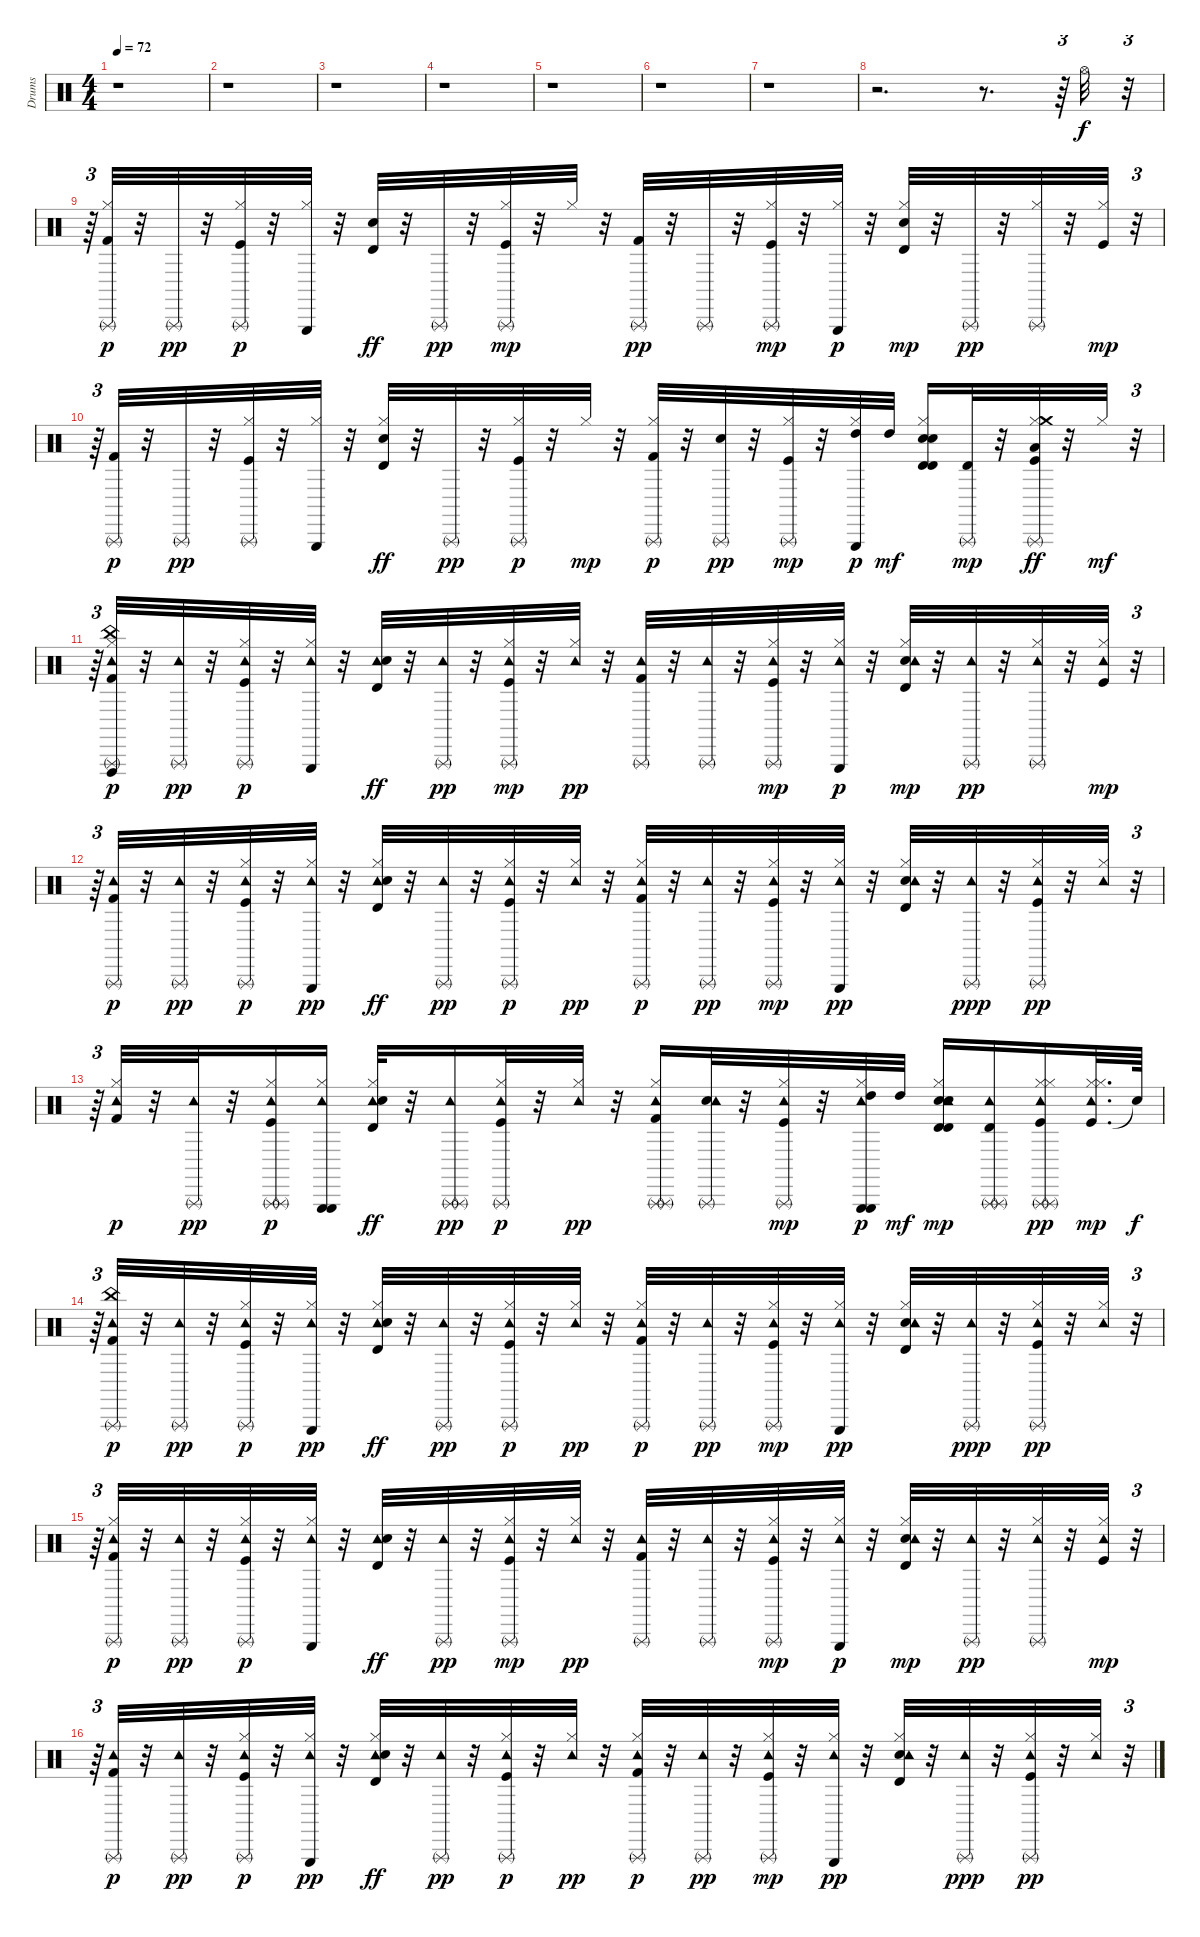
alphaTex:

\track ("Drums" "Drums") {instrument percussion}
\staff {score}
\articulation defaults
\ts (4 4)
\tempo 72
\clef neutral
\ks c
r.1{dy pp} |
r.1 |
r.1 |
r.1 |
r.1 |
r.1 |
r.1 |
r.2{d} r.8{d} r.64{tu (3 2)} "Hi-Hat (open)".32{dy f} r.32{tu (3 2)} |
r.64{tu (3 2)} ("Hi-Hat (closed)" "Triangle (rnute)" "Kick (hit) 2").32{dy p} r.32 "Triangle (rnute)".32{dy pp} r.32 ("Kick (hit)" "Hi-Hat (closed)" "Triangle (rnute)").32{dy p} r.32 ("Hi-Hat (closed)" "Triangle (hit)").32 r.32 ("Electric Snare (hit)" "Timbale high (hit)").32{dy ff} r.32 "Triangle (rnute)".32{dy pp} r.32 ("Kick (hit)" "Hi-Hat (closed)" "Triangle (rnute)").32{dy mp} r.32 "Hi-Hat (closed)".32 r.32 ("Kick (hit) 2" "Triangle (rnute)").32{dy pp} r.32 "Triangle (rnute)".32 r.32 ("Hi-Hat (closed)" "Triangle (rnute)" "Kick (hit)").32{dy mp} r.32 ("Hi-Hat (closed)" "Triangle (hit)").32{dy p} r.32 ("Timbale high (hit)" "Electric Snare (hit)" "Hi-Hat (closed)").32{dy mp} r.32 "Triangle (rnute)".32{dy pp} r.32 ("Hi-Hat (closed)" "Triangle (rnute)").32 r.32 ("Kick (hit)" "Hi-Hat (closed)").32{dy mp} r.32{tu (3 2)} |
r.64{tu (3 2)} ("Kick (hit) 2" "Triangle (rnute)").32{dy p} r.32 "Triangle (rnute)".32{dy pp} r.32 ("Kick (hit)" "Hi-Hat (closed)" "Triangle (rnute)").32 r.32 ("Hi-Hat (closed)" "Triangle (hit)").32 r.32 ("Hi-Hat (closed)" "Electric Snare (hit)" "Timbale high (hit)").32{dy ff} r.32 "Triangle (rnute)".32{dy pp} r.32 ("Kick (hit)" "Hi-Hat (closed)" "Triangle (rnute)").32{dy p} r.32 "Hi-Hat (closed)".32{dy mp} r.32 ("Hi-Hat (closed)" "Triangle (rnute)" "Kick (hit) 2").32{dy p} r.32 ("Snare (hit) 2" "Triangle (rnute)").32{dy pp} r.32 ("Hi-Hat (closed)" "Triangle (rnute)" "Kick (hit)").32{dy mp} r.32 ("Hi-Hat (closed)" "High Tom (hit)" "Triangle (hit)").32{dy p} "High Tom (hit)".32{dy mf} ("Electric Snare (hit)" "Timbale high (hit)" "Hi-Hat (closed)" "Timbale high (hit)" "Snare (hit) 2").16 ("Triangle (rnute)" "Timbale high (hit)").32{dy mp} r.32 ("Kick (hit)" "Hi-Hat (closed)" "Triangle (rnute)" "Crash medium (hit)" "Low Tom (hit)").32{dy ff} r.32 "Hi-Hat (closed)".32{dy mf} r.32{tu (3 2)} |
r.64{tu (3 2)} ("China (hit)" "Hi-Hat (closed)" "Tambourine (hit)" "Vibraslap (hit)" "Triangle (rnute)" "Kick (hit) 2").32{dy p} r.32 ("Triangle (rnute)" "Tambourine (hit)").32{dy pp} r.32 ("Kick (hit)" "Hi-Hat (closed)" "Tambourine (hit)" "Triangle (rnute)").32{dy p} r.32 ("Hi-Hat (closed)" "Tambourine (hit)" "Triangle (hit)").32 r.32 ("Tambourine (hit)" "Electric Snare (hit)" "Timbale high (hit)").32{dy ff} r.32 ("Triangle (rnute)" "Tambourine (hit)").32{dy pp} r.32 ("Kick (hit)" "Hi-Hat (closed)" "Tambourine (hit)" "Triangle (rnute)").32{dy mp} r.32 ("Hi-Hat (closed)" "Tambourine (hit)").32{dy pp} r.32 ("Tambourine (hit)" "Kick (hit) 2" "Triangle (rnute)").32 r.32 ("Triangle (rnute)" "Tambourine (hit)").32 r.32 ("Hi-Hat (closed)" "Triangle (rnute)" "Tambourine (hit)" "Kick (hit)").32{dy mp} r.32 ("Hi-Hat (closed)" "Tambourine (hit)" "Triangle (hit)").32{dy p} r.32 ("Timbale high (hit)" "Electric Snare (hit)" "Tambourine (hit)" "Hi-Hat (closed)").32{dy mp} r.32 ("Tambourine (hit)" "Triangle (rnute)").32{dy pp} r.32 ("Tambourine (hit)" "Hi-Hat (closed)" "Triangle (rnute)").32 r.32 ("Kick (hit)" "Tambourine (hit)" "Hi-Hat (closed)").32{dy mp} r.32{tu (3 2)} |
r.64{tu (3 2)} ("Kick (hit) 2" "Tambourine (hit)" "Triangle (rnute)").32{dy p} r.32 ("Triangle (rnute)" "Tambourine (hit)").32{dy pp} r.32 ("Kick (hit)" "Hi-Hat (closed)" "Triangle (rnute)" "Tambourine (hit)").32{dy p} r.32 ("Hi-Hat (closed)" "Triangle (hit)" "Tambourine (hit)").32{dy pp} r.32 ("Hi-Hat (closed)" "Tambourine (hit)" "Electric Snare (hit)" "Timbale high (hit)").32{dy ff} r.32 ("Tambourine (hit)" "Triangle (rnute)").32{dy pp} r.32 ("Kick (hit)" "Hi-Hat (closed)" "Tambourine (hit)" "Triangle (rnute)").32{dy p} r.32 ("Hi-Hat (closed)" "Tambourine (hit)").32{dy pp} r.32 ("Hi-Hat (closed)" "Triangle (rnute)" "Tambourine (hit)" "Kick (hit) 2").32{dy p} r.32 ("Triangle (rnute)" "Tambourine (hit)").32{dy pp} r.32 ("Hi-Hat (closed)" "Triangle (rnute)" "Tambourine (hit)" "Kick (hit)").32{dy mp} r.32 ("Hi-Hat (closed)" "Triangle (hit)" "Tambourine (hit)").32{dy pp} r.32 ("Electric Snare (hit)" "Timbale high (hit)" "Hi-Hat (closed)" "Tambourine (hit)").32 r.32 ("Triangle (rnute)" "Tambourine (hit)").32{dy ppp} r.32 ("Kick (hit)" "Hi-Hat (closed)" "Triangle (rnute)" "Tambourine (hit)").32{dy pp} r.32 ("Hi-Hat (closed)" "Tambourine (hit)").32 r.32{tu (3 2)} |
r.64{tu (3 2)} ("Hi-Hat (closed)" "Tambourine (hit)" "Kick (hit) 2").32{dy p} r.32 ("Triangle (rnute)" "Tambourine (hit)").32{dy pp} r.32 ("Kick (hit)" "Hi-Hat (closed)" "Triangle (rnute)" "Tambourine (hit)" "Triangle (rnute)").16{dy p} ("Hi-Hat (closed)" "Triangle (hit)" "Tambourine (hit)" "Triangle (hit)").16 ("Hi-Hat (closed)" "Tambourine (hit)" "Electric Snare (hit)" "Timbale high (hit)").32{dy ff} r.32 ("Triangle (rnute)" "Tambourine (hit)" "Triangle (rnute)").16{dy pp} ("Kick (hit)" "Hi-Hat (closed)" "Tambourine (hit)" "Triangle (rnute)").32{dy p} r.32 ("Hi-Hat (closed)" "Tambourine (hit)").32{dy pp} r.32 ("Hi-Hat (closed)" "Triangle (rnute)" "Tambourine (hit)" "Triangle (rnute)" "Kick (hit) 2").16 ("Snare (hit) 2" "Triangle (rnute)" "Tambourine (hit)").32 r.32 ("Hi-Hat (closed)" "Triangle (rnute)" "Tambourine (hit)" "Kick (hit)").32{dy mp} r.32 ("Hi-Hat (closed)" "High Tom (hit)" "Triangle (hit)" "Tambourine (hit)" "Triangle (hit)").32{dy p} "High Tom (hit)".32{dy mf} ("Timbale high (hit)" "Electric Snare (hit)" "Electric Snare (hit)" "Tambourine (hit)" "Hi-Hat (closed)" "Timbale high (hit)").16{dy mp} ("Triangle (rnute)" "Tambourine (hit)" "Triangle (rnute)" "Timbale high (hit)").16 ("Kick (hit)" "Hi-Hat (closed)" "Triangle (rnute)" "Tambourine (hit)" "Hi-Hat (closed)" "Triangle (rnute)").16{dy pp} ("Kick (hit)" "Hi-Hat (closed)" "Tambourine (hit)" "Hi-Hat (closed)").32{d dy mp} "Snare (hit)"{t}.64{dy f} |
r.64{tu (3 2)} ("Kick (hit) 2" "China (hit)" "Tambourine (hit)" "Triangle (rnute)").32{dy p} r.32 ("Triangle (rnute)" "Tambourine (hit)").32{dy pp} r.32 ("Kick (hit)" "Hi-Hat (closed)" "Triangle (rnute)" "Tambourine (hit)").32{dy p} r.32 ("Hi-Hat (closed)" "Triangle (hit)" "Tambourine (hit)").32{dy pp} r.32 ("Hi-Hat (closed)" "Tambourine (hit)" "Electric Snare (hit)" "Timbale high (hit)").32{dy ff} r.32 ("Tambourine (hit)" "Triangle (rnute)").32{dy pp} r.32 ("Kick (hit)" "Hi-Hat (closed)" "Tambourine (hit)" "Triangle (rnute)").32{dy p} r.32 ("Hi-Hat (closed)" "Tambourine (hit)").32{dy pp} r.32 ("Hi-Hat (closed)" "Triangle (rnute)" "Tambourine (hit)" "Kick (hit) 2").32{dy p} r.32 ("Triangle (rnute)" "Tambourine (hit)").32{dy pp} r.32 ("Hi-Hat (closed)" "Triangle (rnute)" "Tambourine (hit)" "Kick (hit)").32{dy mp} r.32 ("Hi-Hat (closed)" "Triangle (hit)" "Tambourine (hit)").32{dy pp} r.32 ("Electric Snare (hit)" "Timbale high (hit)" "Hi-Hat (closed)" "Tambourine (hit)").32 r.32 ("Triangle (rnute)" "Tambourine (hit)").32{dy ppp} r.32 ("Kick (hit)" "Hi-Hat (closed)" "Triangle (rnute)" "Tambourine (hit)").32{dy pp} r.32 ("Hi-Hat (closed)" "Tambourine (hit)").32 r.32{tu (3 2)} |
r.64{tu (3 2)} ("Hi-Hat (closed)" "Tambourine (hit)" "Triangle (rnute)" "Kick (hit) 2").32{dy p} r.32 ("Triangle (rnute)" "Tambourine (hit)").32{dy pp} r.32 ("Kick (hit)" "Hi-Hat (closed)" "Tambourine (hit)" "Triangle (rnute)").32{dy p} r.32 ("Hi-Hat (closed)" "Tambourine (hit)" "Triangle (hit)").32 r.32 ("Tambourine (hit)" "Electric Snare (hit)" "Timbale high (hit)").32{dy ff} r.32 ("Triangle (rnute)" "Tambourine (hit)").32{dy pp} r.32 ("Kick (hit)" "Hi-Hat (closed)" "Tambourine (hit)" "Triangle (rnute)").32{dy mp} r.32 ("Hi-Hat (closed)" "Tambourine (hit)").32{dy pp} r.32 ("Tambourine (hit)" "Kick (hit) 2" "Triangle (rnute)").32 r.32 ("Triangle (rnute)" "Tambourine (hit)").32 r.32 ("Hi-Hat (closed)" "Triangle (rnute)" "Tambourine (hit)" "Kick (hit)").32{dy mp} r.32 ("Hi-Hat (closed)" "Tambourine (hit)" "Triangle (hit)").32{dy p} r.32 ("Timbale high (hit)" "Electric Snare (hit)" "Tambourine (hit)" "Hi-Hat (closed)").32{dy mp} r.32 ("Tambourine (hit)" "Triangle (rnute)").32{dy pp} r.32 ("Tambourine (hit)" "Hi-Hat (closed)" "Triangle (rnute)").32 r.32 ("Kick (hit)" "Tambourine (hit)" "Hi-Hat (closed)").32{dy mp} r.32{tu (3 2)} |
r.64{tu (3 2)} ("Kick (hit) 2" "Tambourine (hit)" "Triangle (rnute)").32{dy p} r.32 ("Triangle (rnute)" "Tambourine (hit)").32{dy pp} r.32 ("Kick (hit)" "Hi-Hat (closed)" "Triangle (rnute)" "Tambourine (hit)").32{dy p} r.32 ("Hi-Hat (closed)" "Triangle (hit)" "Tambourine (hit)").32{dy pp} r.32 ("Hi-Hat (closed)" "Tambourine (hit)" "Electric Snare (hit)" "Timbale high (hit)").32{dy ff} r.32 ("Tambourine (hit)" "Triangle (rnute)").32{dy pp} r.32 ("Kick (hit)" "Hi-Hat (closed)" "Tambourine (hit)" "Triangle (rnute)").32{dy p} r.32 ("Hi-Hat (closed)" "Tambourine (hit)").32{dy pp} r.32 ("Hi-Hat (closed)" "Triangle (rnute)" "Tambourine (hit)" "Kick (hit) 2").32{dy p} r.32 ("Triangle (rnute)" "Tambourine (hit)").32{dy pp} r.32 ("Hi-Hat (closed)" "Triangle (rnute)" "Tambourine (hit)" "Kick (hit)").32{dy mp} r.32 ("Hi-Hat (closed)" "Triangle (hit)" "Tambourine (hit)").32{dy pp} r.32 ("Electric Snare (hit)" "Timbale high (hit)" "Hi-Hat (closed)" "Tambourine (hit)").32 r.32 ("Triangle (rnute)" "Tambourine (hit)").32{dy ppp} r.32 ("Kick (hit)" "Hi-Hat (closed)" "Triangle (rnute)" "Tambourine (hit)").32{dy pp} r.32 ("Hi-Hat (closed)" "Tambourine (hit)").32 r.32{tu (3 2)}
